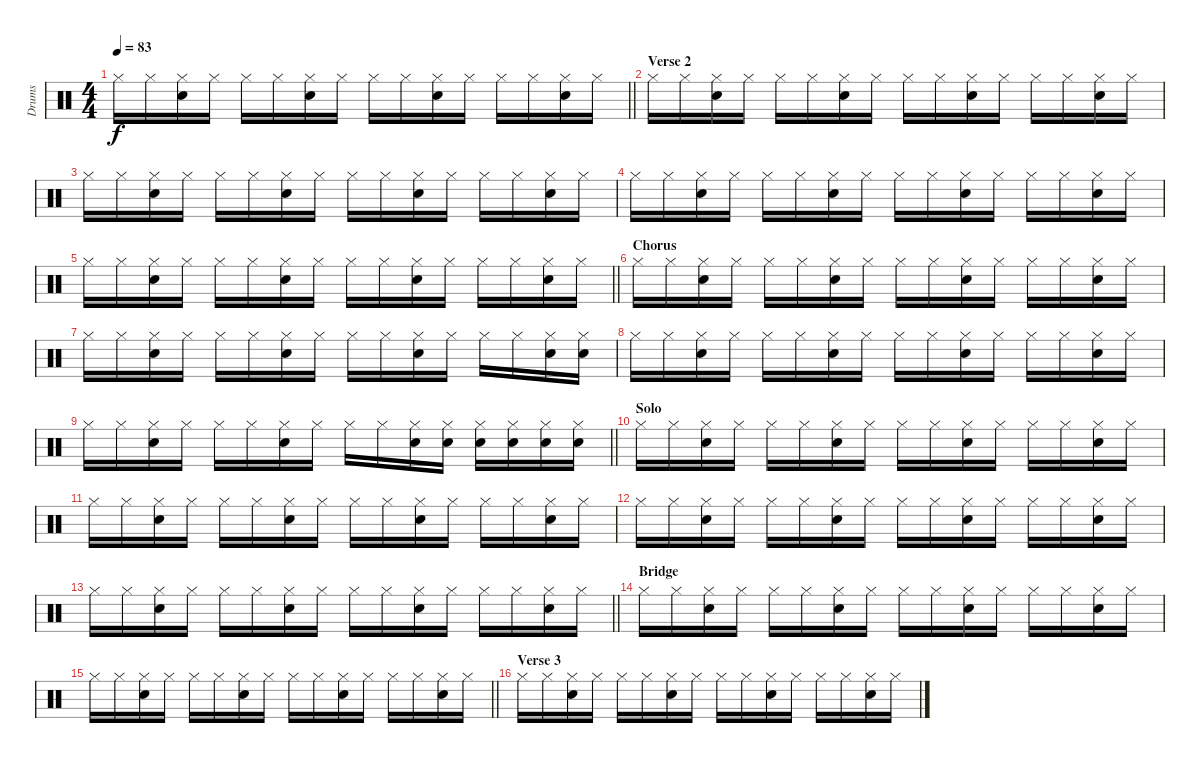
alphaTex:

\track ("Drums" "Drums") {instrument percussion}
\staff {score}
\articulation defaults
\ts (4 4)
\tempo 83
\clef neutral
\barLineRight lightlight
\ks c "Hi-Hat (closed)".16{dy f} "Hi-Hat (closed)".16
("Hi-Hat (closed)" "Electric Snare (hit)").16 "Hi-Hat (closed)".16 "Hi-Hat (closed)".16 "Hi-Hat (closed)".16 ("Hi-Hat (closed)" "Electric Snare (hit)").16 "Hi-Hat (closed)".16 "Hi-Hat (closed)".16 "Hi-Hat (closed)".16 ("Hi-Hat (closed)" "Electric Snare (hit)").16 "Hi-Hat (closed)".16 "Hi-Hat (closed)".16 "Hi-Hat (closed)".16 ("Hi-Hat (closed)" "Electric Snare (hit)").16 "Hi-Hat (closed)".16 |
\section ("" "Verse 2")
"Hi-Hat (closed)".16 "Hi-Hat (closed)".16 ("Hi-Hat (closed)" "Electric Snare (hit)").16 "Hi-Hat (closed)".16 "Hi-Hat (closed)".16 "Hi-Hat (closed)".16 ("Hi-Hat (closed)" "Electric Snare (hit)").16 "Hi-Hat (closed)".16 "Hi-Hat (closed)".16 "Hi-Hat (closed)".16 ("Hi-Hat (closed)" "Electric Snare (hit)").16 "Hi-Hat (closed)".16 "Hi-Hat (closed)".16 "Hi-Hat (closed)".16 ("Hi-Hat (closed)" "Electric Snare (hit)").16 "Hi-Hat (closed)".16 |
"Hi-Hat (closed)".16 "Hi-Hat (closed)".16 ("Hi-Hat (closed)" "Electric Snare (hit)").16 "Hi-Hat (closed)".16 "Hi-Hat (closed)".16 "Hi-Hat (closed)".16 ("Hi-Hat (closed)" "Electric Snare (hit)").16 "Hi-Hat (closed)".16 "Hi-Hat (closed)".16 "Hi-Hat (closed)".16 ("Hi-Hat (closed)" "Electric Snare (hit)").16 "Hi-Hat (closed)".16 "Hi-Hat (closed)".16 "Hi-Hat (closed)".16 ("Hi-Hat (closed)" "Electric Snare (hit)").16 "Hi-Hat (closed)".16 |
"Hi-Hat (closed)".16 "Hi-Hat (closed)".16 ("Hi-Hat (closed)" "Electric Snare (hit)").16 "Hi-Hat (closed)".16 "Hi-Hat (closed)".16 "Hi-Hat (closed)".16 ("Hi-Hat (closed)" "Electric Snare (hit)").16 "Hi-Hat (closed)".16 "Hi-Hat (closed)".16 "Hi-Hat (closed)".16 ("Hi-Hat (closed)" "Electric Snare (hit)").16 "Hi-Hat (closed)".16 "Hi-Hat (closed)".16 "Hi-Hat (closed)".16 ("Hi-Hat (closed)" "Electric Snare (hit)").16 "Hi-Hat (closed)".16 |
\barLineRight lightlight "Hi-Hat (closed)".16 "Hi-Hat (closed)".16
("Hi-Hat (closed)" "Electric Snare (hit)").16 "Hi-Hat (closed)".16 "Hi-Hat (closed)".16 "Hi-Hat (closed)".16 ("Hi-Hat (closed)" "Electric Snare (hit)").16 "Hi-Hat (closed)".16 "Hi-Hat (closed)".16 "Hi-Hat (closed)".16 ("Hi-Hat (closed)" "Electric Snare (hit)").16 "Hi-Hat (closed)".16 "Hi-Hat (closed)".16 "Hi-Hat (closed)".16 ("Hi-Hat (closed)" "Electric Snare (hit)").16 "Hi-Hat (closed)".16 |
\section ("" "Chorus")
"Hi-Hat (closed)".16 "Hi-Hat (closed)".16 ("Hi-Hat (closed)" "Electric Snare (hit)").16 "Hi-Hat (closed)".16 "Hi-Hat (closed)".16 "Hi-Hat (closed)".16 ("Hi-Hat (closed)" "Electric Snare (hit)").16 "Hi-Hat (closed)".16 "Hi-Hat (closed)".16 "Hi-Hat (closed)".16 ("Hi-Hat (closed)" "Electric Snare (hit)").16 "Hi-Hat (closed)".16 "Hi-Hat (closed)".16 "Hi-Hat (closed)".16 ("Hi-Hat (closed)" "Electric Snare (hit)").16 "Hi-Hat (closed)".16 |
"Hi-Hat (closed)".16 "Hi-Hat (closed)".16 ("Hi-Hat (closed)" "Electric Snare (hit)").16 "Hi-Hat (closed)".16 "Hi-Hat (closed)".16 "Hi-Hat (closed)".16 ("Hi-Hat (closed)" "Electric Snare (hit)").16 "Hi-Hat (closed)".16 "Hi-Hat (closed)".16 "Hi-Hat (closed)".16 ("Hi-Hat (closed)" "Electric Snare (hit)").16 "Hi-Hat (closed)".16 "Hi-Hat (closed)".16 "Hi-Hat (closed)".16 ("Hi-Hat (closed)" "Electric Snare (hit)").16 ("Hi-Hat (closed)" "Electric Snare (hit)").16 |
"Hi-Hat (closed)".16 "Hi-Hat (closed)".16 ("Hi-Hat (closed)" "Electric Snare (hit)").16 "Hi-Hat (closed)".16 "Hi-Hat (closed)".16 "Hi-Hat (closed)".16 ("Hi-Hat (closed)" "Electric Snare (hit)").16 "Hi-Hat (closed)".16 "Hi-Hat (closed)".16 "Hi-Hat (closed)".16 ("Hi-Hat (closed)" "Electric Snare (hit)").16 "Hi-Hat (closed)".16 "Hi-Hat (closed)".16 "Hi-Hat (closed)".16 ("Hi-Hat (closed)" "Electric Snare (hit)").16 "Hi-Hat (closed)".16 |
\barLineRight lightlight "Hi-Hat (closed)".16 "Hi-Hat (closed)".16
("Hi-Hat (closed)" "Electric Snare (hit)").16 "Hi-Hat (closed)".16 "Hi-Hat (closed)".16 "Hi-Hat (closed)".16 ("Hi-Hat (closed)" "Electric Snare (hit)").16 "Hi-Hat (closed)".16 "Hi-Hat (closed)".16 "Hi-Hat (closed)".16 ("Hi-Hat (closed)" "Electric Snare (hit)").16 ("Hi-Hat (closed)" "Electric Snare (hit)").16 ("Hi-Hat (closed)" "Electric Snare (hit)").16 ("Hi-Hat (closed)" "Electric Snare (hit)").16 ("Hi-Hat (closed)" "Electric Snare (hit)").16 ("Hi-Hat (closed)" "Electric Snare (hit)").16 |
\section ("" "Solo")
"Hi-Hat (closed)".16 "Hi-Hat (closed)".16 ("Hi-Hat (closed)" "Electric Snare (hit)").16 "Hi-Hat (closed)".16 "Hi-Hat (closed)".16 "Hi-Hat (closed)".16 ("Hi-Hat (closed)" "Electric Snare (hit)").16 "Hi-Hat (closed)".16 "Hi-Hat (closed)".16 "Hi-Hat (closed)".16 ("Hi-Hat (closed)" "Electric Snare (hit)").16 "Hi-Hat (closed)".16 "Hi-Hat (closed)".16 "Hi-Hat (closed)".16 ("Hi-Hat (closed)" "Electric Snare (hit)").16 "Hi-Hat (closed)".16 |
"Hi-Hat (closed)".16 "Hi-Hat (closed)".16 ("Hi-Hat (closed)" "Electric Snare (hit)").16 "Hi-Hat (closed)".16 "Hi-Hat (closed)".16 "Hi-Hat (closed)".16 ("Hi-Hat (closed)" "Electric Snare (hit)").16 "Hi-Hat (closed)".16 "Hi-Hat (closed)".16 "Hi-Hat (closed)".16 ("Hi-Hat (closed)" "Electric Snare (hit)").16 "Hi-Hat (closed)".16 "Hi-Hat (closed)".16 "Hi-Hat (closed)".16 ("Hi-Hat (closed)" "Electric Snare (hit)").16 "Hi-Hat (closed)".16 |
"Hi-Hat (closed)".16 "Hi-Hat (closed)".16 ("Hi-Hat (closed)" "Electric Snare (hit)").16 "Hi-Hat (closed)".16 "Hi-Hat (closed)".16 "Hi-Hat (closed)".16 ("Hi-Hat (closed)" "Electric Snare (hit)").16 "Hi-Hat (closed)".16 "Hi-Hat (closed)".16 "Hi-Hat (closed)".16 ("Hi-Hat (closed)" "Electric Snare (hit)").16 "Hi-Hat (closed)".16 "Hi-Hat (closed)".16 "Hi-Hat (closed)".16 ("Hi-Hat (closed)" "Electric Snare (hit)").16 "Hi-Hat (closed)".16 |
\barLineRight lightlight "Hi-Hat (closed)".16 "Hi-Hat (closed)".16
("Hi-Hat (closed)" "Electric Snare (hit)").16 "Hi-Hat (closed)".16 "Hi-Hat (closed)".16 "Hi-Hat (closed)".16 ("Hi-Hat (closed)" "Electric Snare (hit)").16 "Hi-Hat (closed)".16 "Hi-Hat (closed)".16 "Hi-Hat (closed)".16 ("Hi-Hat (closed)" "Electric Snare (hit)").16 "Hi-Hat (closed)".16 "Hi-Hat (closed)".16 "Hi-Hat (closed)".16 ("Hi-Hat (closed)" "Electric Snare (hit)").16 "Hi-Hat (closed)".16 |
\section ("" "Bridge")
"Hi-Hat (closed)".16 "Hi-Hat (closed)".16 ("Hi-Hat (closed)" "Electric Snare (hit)").16 "Hi-Hat (closed)".16 "Hi-Hat (closed)".16 "Hi-Hat (closed)".16 ("Hi-Hat (closed)" "Electric Snare (hit)").16 "Hi-Hat (closed)".16 "Hi-Hat (closed)".16 "Hi-Hat (closed)".16 ("Hi-Hat (closed)" "Electric Snare (hit)").16 "Hi-Hat (closed)".16 "Hi-Hat (closed)".16 "Hi-Hat (closed)".16 ("Hi-Hat (closed)" "Electric Snare (hit)").16 "Hi-Hat (closed)".16 |
\barLineRight lightlight "Hi-Hat (closed)".16 "Hi-Hat (closed)".16
("Hi-Hat (closed)" "Electric Snare (hit)").16 "Hi-Hat (closed)".16 "Hi-Hat (closed)".16 "Hi-Hat (closed)".16 ("Hi-Hat (closed)" "Electric Snare (hit)").16 "Hi-Hat (closed)".16 "Hi-Hat (closed)".16 "Hi-Hat (closed)".16 ("Hi-Hat (closed)" "Electric Snare (hit)").16 "Hi-Hat (closed)".16 "Hi-Hat (closed)".16 "Hi-Hat (closed)".16 ("Hi-Hat (closed)" "Electric Snare (hit)").16 "Hi-Hat (closed)".16 |
\section ("" "Verse 3")
"Hi-Hat (closed)".16 "Hi-Hat (closed)".16 ("Hi-Hat (closed)" "Electric Snare (hit)").16 "Hi-Hat (closed)".16 "Hi-Hat (closed)".16 "Hi-Hat (closed)".16 ("Hi-Hat (closed)" "Electric Snare (hit)").16 "Hi-Hat (closed)".16 "Hi-Hat (closed)".16 "Hi-Hat (closed)".16 ("Hi-Hat (closed)" "Electric Snare (hit)").16 "Hi-Hat (closed)".16 "Hi-Hat (closed)".16 "Hi-Hat (closed)".16 ("Hi-Hat (closed)" "Electric Snare (hit)").16 "Hi-Hat (closed)".16
